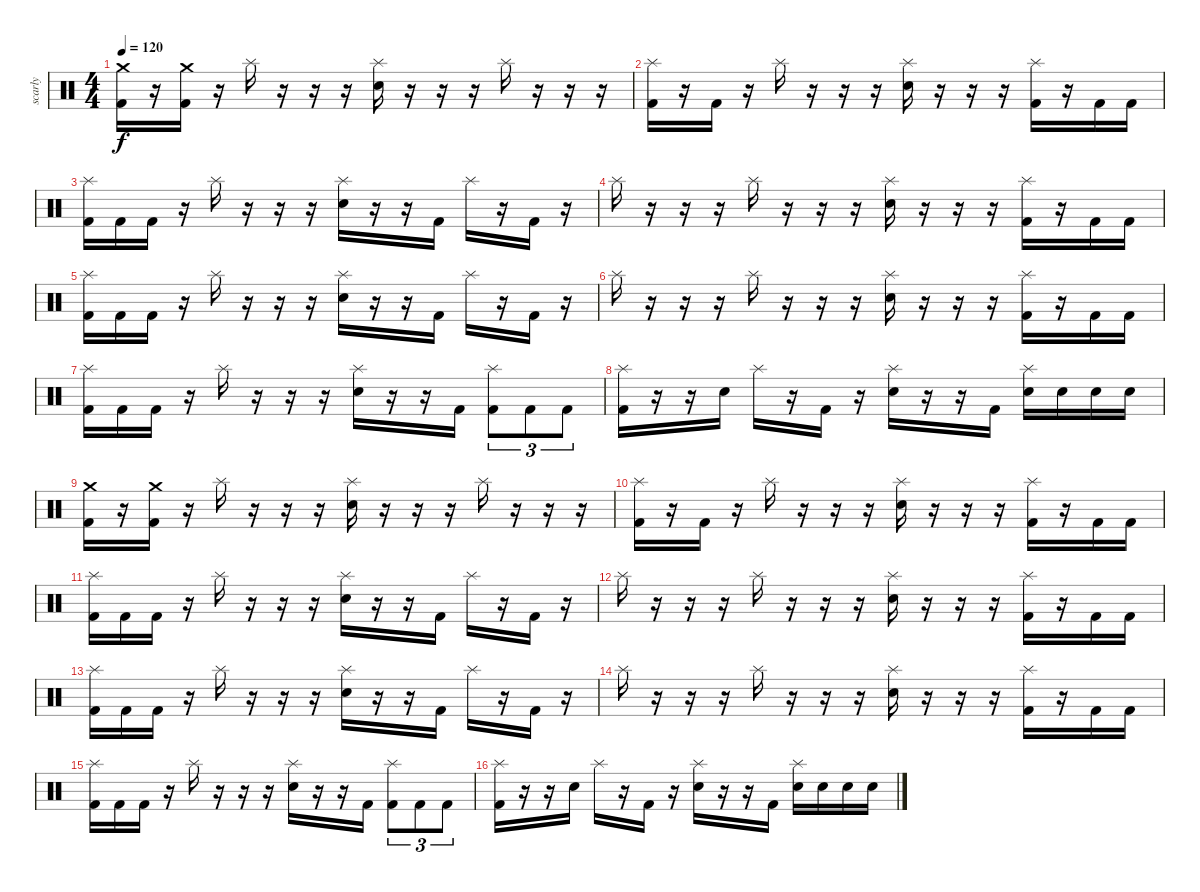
\track ("scarly" "scarly") {instrument percussion}
\staff {score}
\articulation defaults
\ts (4 4)
\tempo 120
\clef neutral
\ks c
("Kick (hit) 2" "Crash medium (hit)").16{dy f} r.16 ("Kick (hit) 2" "Crash medium (hit)").16 r.16 "Splash (hit)".16 r.16 r.16 r.16 ("Snare (hit) 2" "Splash (hit)").16 r.16 r.16 r.16 "Splash (hit)".16 r.16 r.16 r.16 |
("Kick (hit) 2" "Splash (hit)").16 r.16 "Kick (hit) 2".16 r.16 "Splash (hit)".16 r.16 r.16 r.16 ("Snare (hit) 2" "Splash (hit)").16 r.16 r.16 r.16 ("Kick (hit) 2" "Splash (hit)").16 r.16 "Kick (hit) 2".16 "Kick (hit) 2".16 |
("Kick (hit) 2" "Splash (hit)").16 "Kick (hit) 2".16 "Kick (hit) 2".16 r.16 "Splash (hit)".16 r.16 r.16 r.16 ("Snare (hit) 2" "Splash (hit)").16 r.16 r.16 "Kick (hit) 2".16 "Splash (hit)".16 r.16 "Kick (hit) 2".16 r.16 |
"Splash (hit)".16 r.16 r.16 r.16 "Splash (hit)".16 r.16 r.16 r.16 ("Snare (hit) 2" "Splash (hit)").16 r.16 r.16 r.16 ("Kick (hit) 2" "Splash (hit)").16 r.16 "Kick (hit) 2".16 "Kick (hit) 2".16 |
("Kick (hit) 2" "Splash (hit)").16 "Kick (hit) 2".16 "Kick (hit) 2".16 r.16 "Splash (hit)".16 r.16 r.16 r.16 ("Snare (hit) 2" "Splash (hit)").16 r.16 r.16 "Kick (hit) 2".16 "Splash (hit)".16 r.16 "Kick (hit) 2".16 r.16 |
"Splash (hit)".16 r.16 r.16 r.16 "Splash (hit)".16 r.16 r.16 r.16 ("Snare (hit) 2" "Splash (hit)").16 r.16 r.16 r.16 ("Kick (hit) 2" "Splash (hit)").16 r.16 "Kick (hit) 2".16 "Kick (hit) 2".16 |
("Kick (hit) 2" "Splash (hit)").16 "Kick (hit) 2".16 "Kick (hit) 2".16 r.16 "Splash (hit)".16 r.16 r.16 r.16 ("Snare (hit) 2" "Splash (hit)").16 r.16 r.16 "Kick (hit) 2".16 ("Kick (hit) 2" "Splash (hit)").8{tu (3 2)} "Kick (hit) 2".8{tu (3 2)} "Kick (hit) 2".8{tu (3 2)} |
("Kick (hit) 2" "Splash (hit)").16 r.16 r.16 "Snare (hit) 2".16 "Splash (hit)".16 r.16 "Kick (hit) 2".16 r.16 ("Snare (hit) 2" "Splash (hit)").16 r.16 r.16 "Kick (hit) 2".16 ("Snare (hit) 2" "Splash (hit)").16 "Snare (hit) 2".16 "Snare (hit) 2".16 "Snare (hit) 2".16 |
("Kick (hit) 2" "Crash medium (hit)").16 r.16 ("Kick (hit) 2" "Crash medium (hit)").16 r.16 "Splash (hit)".16 r.16 r.16 r.16 ("Snare (hit) 2" "Splash (hit)").16 r.16 r.16 r.16 "Splash (hit)".16 r.16 r.16 r.16 |
("Kick (hit) 2" "Splash (hit)").16 r.16 "Kick (hit) 2".16 r.16 "Splash (hit)".16 r.16 r.16 r.16 ("Snare (hit) 2" "Splash (hit)").16 r.16 r.16 r.16 ("Kick (hit) 2" "Splash (hit)").16 r.16 "Kick (hit) 2".16 "Kick (hit) 2".16 |
("Kick (hit) 2" "Splash (hit)").16 "Kick (hit) 2".16 "Kick (hit) 2".16 r.16 "Splash (hit)".16 r.16 r.16 r.16 ("Snare (hit) 2" "Splash (hit)").16 r.16 r.16 "Kick (hit) 2".16 "Splash (hit)".16 r.16 "Kick (hit) 2".16 r.16 |
"Splash (hit)".16 r.16 r.16 r.16 "Splash (hit)".16 r.16 r.16 r.16 ("Snare (hit) 2" "Splash (hit)").16 r.16 r.16 r.16 ("Kick (hit) 2" "Splash (hit)").16 r.16 "Kick (hit) 2".16 "Kick (hit) 2".16 |
("Kick (hit) 2" "Splash (hit)").16 "Kick (hit) 2".16 "Kick (hit) 2".16 r.16 "Splash (hit)".16 r.16 r.16 r.16 ("Snare (hit) 2" "Splash (hit)").16 r.16 r.16 "Kick (hit) 2".16 "Splash (hit)".16 r.16 "Kick (hit) 2".16 r.16 |
"Splash (hit)".16 r.16 r.16 r.16 "Splash (hit)".16 r.16 r.16 r.16 ("Snare (hit) 2" "Splash (hit)").16 r.16 r.16 r.16 ("Kick (hit) 2" "Splash (hit)").16 r.16 "Kick (hit) 2".16 "Kick (hit) 2".16 |
("Kick (hit) 2" "Splash (hit)").16 "Kick (hit) 2".16 "Kick (hit) 2".16 r.16 "Splash (hit)".16 r.16 r.16 r.16 ("Snare (hit) 2" "Splash (hit)").16 r.16 r.16 "Kick (hit) 2".16 ("Kick (hit) 2" "Splash (hit)").8{tu (3 2)} "Kick (hit) 2".8{tu (3 2)} "Kick (hit) 2".8{tu (3 2)} |
("Kick (hit) 2" "Splash (hit)").16 r.16 r.16 "Snare (hit) 2".16 "Splash (hit)".16 r.16 "Kick (hit) 2".16 r.16 ("Snare (hit) 2" "Splash (hit)").16 r.16 r.16 "Kick (hit) 2".16 ("Snare (hit) 2" "Splash (hit)").16 "Snare (hit) 2".16 "Snare (hit) 2".16 "Snare (hit) 2".16
